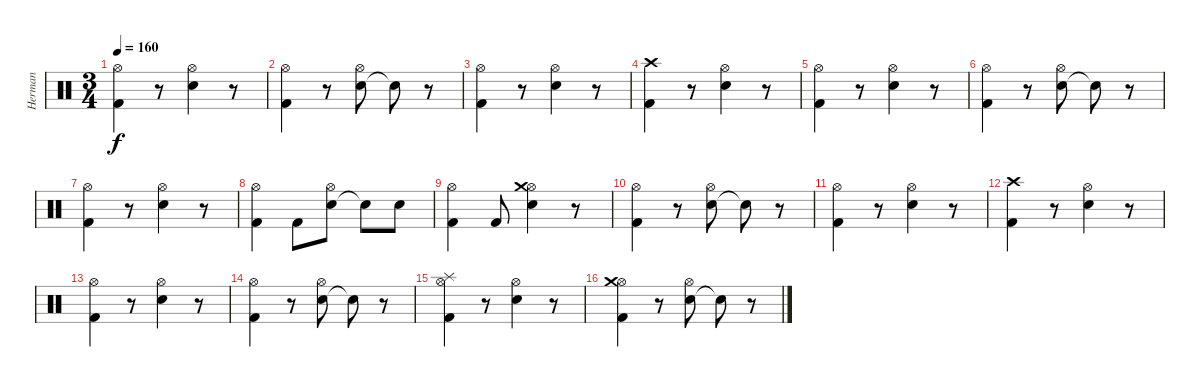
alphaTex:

\track ("Herman" "Herman") {instrument percussion}
\staff {score}
\articulation defaults
\ts (3 4)
\tempo 160
\clef neutral
\ks c
("Kick (hit) 2" "Hi-Hat (open)").4{dy f} r.8 ("Electric Snare (hit)" "Hi-Hat (open)").4 r.8 |
("Kick (hit) 2" "Hi-Hat (open)").4 r.8 ("Electric Snare (hit)" "Hi-Hat (open)").8 "Snare (hit)"{t}.8 r.8 |
("Kick (hit) 2" "Hi-Hat (open)").4 r.8 ("Electric Snare (hit)" "Hi-Hat (open)").4 r.8 |
("Kick (hit) 2" "Crash high (hit)").4 r.8 ("Electric Snare (hit)" "Hi-Hat (open)").4 r.8 |
("Kick (hit) 2" "Hi-Hat (open)").4 r.8 ("Electric Snare (hit)" "Hi-Hat (open)").4 r.8 |
("Kick (hit) 2" "Hi-Hat (open)").4 r.8 ("Electric Snare (hit)" "Hi-Hat (open)").8 "Snare (hit)"{t}.8 r.8 |
("Kick (hit) 2" "Hi-Hat (open)").4 r.8 ("Electric Snare (hit)" "Hi-Hat (open)").4 r.8 |
("Kick (hit) 2" "Hi-Hat (open)").4 "Kick (hit) 2".8 ("Electric Snare (hit)" "Hi-Hat (open)").8 "Snare (hit)"{t}.8 "Electric Snare (hit)".8 |
("Kick (hit) 2" "Hi-Hat (open)").4 "Kick (hit) 2".8 ("Electric Snare (hit)" "Hi-Hat (open)" "Crash medium (hit)").4 r.8 |
("Kick (hit) 2" "Hi-Hat (open)").4 r.8 ("Electric Snare (hit)" "Hi-Hat (open)").8 "Snare (hit)"{t}.8 r.8 |
("Kick (hit) 2" "Hi-Hat (open)").4 r.8 ("Electric Snare (hit)" "Hi-Hat (open)").4 r.8 |
("Kick (hit) 2" "Crash high (hit)").4 r.8 ("Electric Snare (hit)" "Hi-Hat (open)").4 r.8 |
("Kick (hit) 2" "Hi-Hat (open)").4 r.8 ("Electric Snare (hit)" "Hi-Hat (open)").4 r.8 |
("Kick (hit) 2" "Hi-Hat (open)").4 r.8 ("Electric Snare (hit)" "Hi-Hat (open)").8 "Snare (hit)"{t}.8 r.8 |
("Kick (hit) 2" "Hi-Hat (open)" "Splash (hit)").4 r.8 ("Electric Snare (hit)" "Hi-Hat (open)").4 r.8 |
("Kick (hit) 2" "Hi-Hat (open)" "Crash medium (hit)").4 r.8 ("Electric Snare (hit)" "Hi-Hat (open)").8 "Snare (hit)"{t}.8 r.8
